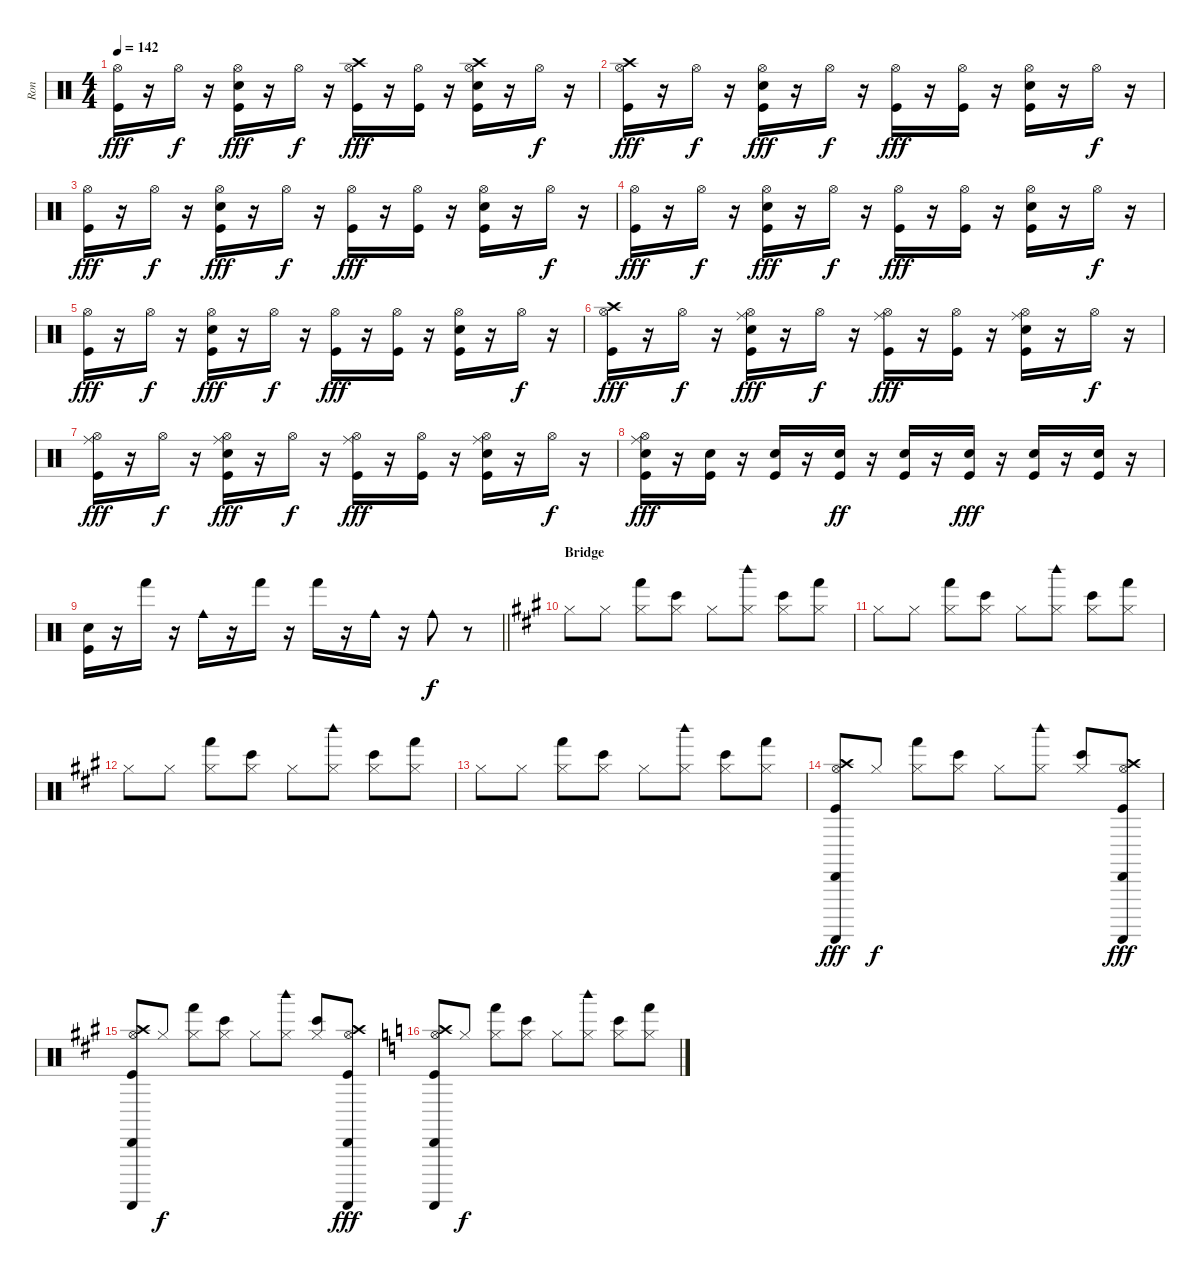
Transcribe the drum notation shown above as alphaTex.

\track ("Ron" "Ron") {instrument percussion}
\staff {score}
\articulation defaults
\ts (4 4)
\tempo 142
\clef neutral
\ks c
("Hi-Hat (open)" "Kick (hit)").16{dy fff} r.16 "Hi-Hat (open)".16{dy f} r.16 ("Snare (hit) 2" "Kick (hit)" "Hi-Hat (open)").16{dy fff} r.16 "Hi-Hat (open)".16{dy f} r.16 ("Kick (hit)" "Hi-Hat (open)" "Crash high (hit)").16{dy fff} r.16 ("Kick (hit)" "Hi-Hat (open)").16 r.16 ("Kick (hit)" "Snare (hit) 2" "Hi-Hat (open)" "Crash high (hit)").16 r.16 "Hi-Hat (open)".16{dy f} r.16 |
("Hi-Hat (open)" "Kick (hit)" "Crash high (hit)").16{dy fff} r.16 "Hi-Hat (open)".16{dy f} r.16 ("Snare (hit) 2" "Kick (hit)" "Hi-Hat (open)").16{dy fff} r.16 "Hi-Hat (open)".16{dy f} r.16 ("Kick (hit)" "Hi-Hat (open)").16{dy fff} r.16 ("Kick (hit)" "Hi-Hat (open)").16 r.16 ("Kick (hit)" "Snare (hit) 2" "Hi-Hat (open)").16 r.16 "Hi-Hat (open)".16{dy f} r.16 |
("Hi-Hat (open)" "Kick (hit)").16{dy fff} r.16 "Hi-Hat (open)".16{dy f} r.16 ("Snare (hit) 2" "Kick (hit)" "Hi-Hat (open)").16{dy fff} r.16 "Hi-Hat (open)".16{dy f} r.16 ("Kick (hit)" "Hi-Hat (open)").16{dy fff} r.16 ("Kick (hit)" "Hi-Hat (open)").16 r.16 ("Kick (hit)" "Snare (hit) 2" "Hi-Hat (open)").16 r.16 "Hi-Hat (open)".16{dy f} r.16 |
("Hi-Hat (open)" "Kick (hit)").16{dy fff} r.16 "Hi-Hat (open)".16{dy f} r.16 ("Snare (hit) 2" "Kick (hit)" "Hi-Hat (open)").16{dy fff} r.16 "Hi-Hat (open)".16{dy f} r.16 ("Kick (hit)" "Hi-Hat (open)").16{dy fff} r.16 ("Kick (hit)" "Hi-Hat (open)").16 r.16 ("Kick (hit)" "Snare (hit) 2" "Hi-Hat (open)").16 r.16 "Hi-Hat (open)".16{dy f} r.16 |
("Hi-Hat (open)" "Kick (hit)").16{dy fff} r.16 "Hi-Hat (open)".16{dy f} r.16 ("Snare (hit) 2" "Kick (hit)" "Hi-Hat (open)").16{dy fff} r.16 "Hi-Hat (open)".16{dy f} r.16 ("Kick (hit)" "Hi-Hat (open)").16{dy fff} r.16 ("Kick (hit)" "Hi-Hat (open)").16 r.16 ("Kick (hit)" "Snare (hit) 2" "Hi-Hat (open)").16 r.16 "Hi-Hat (open)".16{dy f} r.16 |
("Hi-Hat (open)" "Kick (hit)" "Crash high (hit)").16{dy fff} r.16 "Hi-Hat (open)".16{dy f} r.16 ("Snare (hit) 2" "Kick (hit)" "Hi-Hat (open)" "Ride (middle)").16{dy fff} r.16 "Hi-Hat (open)".16{dy f} r.16 ("Kick (hit)" "Hi-Hat (open)" "Ride (middle)").16{dy fff} r.16 ("Kick (hit)" "Hi-Hat (open)").16 r.16 ("Kick (hit)" "Snare (hit) 2" "Hi-Hat (open)" "Ride (middle)").16 r.16 "Hi-Hat (open)".16{dy f} r.16 |
("Hi-Hat (open)" "Kick (hit)" "Ride (middle)").16{dy fff} r.16 "Hi-Hat (open)".16{dy f} r.16 ("Snare (hit) 2" "Kick (hit)" "Hi-Hat (open)" "Ride (middle)").16{dy fff} r.16 "Hi-Hat (open)".16{dy f} r.16 ("Kick (hit)" "Hi-Hat (open)" "Ride (middle)").16{dy fff} r.16 ("Kick (hit)" "Hi-Hat (open)").16 r.16 ("Kick (hit)" "Snare (hit) 2" "Hi-Hat (open)" "Ride (middle)").16 r.16 "Hi-Hat (open)".16{dy f} r.16 |
("Hi-Hat (open)" "Kick (hit)" "Snare (hit) 2" "Ride (middle)").16{dy fff} r.16 ("Kick (hit)" "Snare (hit) 2").16 r.16 ("Kick (hit)" "Snare (hit) 2").16 r.16 ("Kick (hit)" "Snare (hit) 2").16{dy ff} r.16 ("Kick (hit)" "Snare (hit) 2").16 r.16 ("Kick (hit)" "Snare (hit) 2").16{dy fff} r.16 ("Kick (hit)" "Snare (hit) 2").16 r.16 ("Kick (hit)" "Snare (hit) 2").16 r.16 |
\barLineRight lightlight
("Kick (hit)" "Snare (hit) 2").16 r.16 "Hand (hit)".16 r.16 "Cowbell medium (hit)".16 r.16 "Hand (hit)".16 r.16 "Hand (hit)".16 r.16 "Cowbell medium (hit)".16 r.16 "Cowbell medium (hit)".8{dy f} r.8 |
\section ("" "Bridge")
\ks a "Hi-Hat (closed)".8 "Hi-Hat (closed)".8
("Hi-Hat (closed)" "Hand (hit)").8 ("Hi-Hat (closed)" "Bongo High (hit)").8 "Hi-Hat (closed)".8 ("Hi-Hat (closed)" "Woodblock high (hit)").8 ("Hi-Hat (closed)" "Bongo High (hit)").8 ("Hi-Hat (closed)" "Hand (hit)").8 |
"Hi-Hat (closed)".8 "Hi-Hat (closed)".8 ("Hi-Hat (closed)" "Hand (hit)").8 ("Hi-Hat (closed)" "Bongo High (hit)").8 "Hi-Hat (closed)".8 ("Hi-Hat (closed)" "Woodblock high (hit)").8 ("Hi-Hat (closed)" "Bongo High (hit)").8 ("Hi-Hat (closed)" "Hand (hit)").8 |
"Hi-Hat (closed)".8 "Hi-Hat (closed)".8 ("Hi-Hat (closed)" "Hand (hit)").8 ("Hi-Hat (closed)" "Bongo High (hit)").8 "Hi-Hat (closed)".8 ("Hi-Hat (closed)" "Woodblock high (hit)").8 ("Hi-Hat (closed)" "Bongo High (hit)").8 ("Hi-Hat (closed)" "Hand (hit)").8 |
"Hi-Hat (closed)".8 "Hi-Hat (closed)".8 ("Hi-Hat (closed)" "Hand (hit)").8 ("Hi-Hat (closed)" "Bongo High (hit)").8 "Hi-Hat (closed)".8 ("Hi-Hat (closed)" "Woodblock high (hit)").8 ("Hi-Hat (closed)" "Bongo High (hit)").8 ("Hi-Hat (closed)" "Hand (hit)").8 |
("Cabasa (hit)" "Hi-Hat (open)" "Guiro (scrap-return)" "Crash high (hit)" "Kick (hit)").8{dy fff} "Hi-Hat (closed)".8{dy f} ("Hi-Hat (closed)" "Hand (hit)").8 ("Hi-Hat (closed)" "Bongo High (hit)").8 "Hi-Hat (closed)".8 ("Hi-Hat (closed)" "Woodblock high (hit)").8 ("Hi-Hat (closed)" "Bongo High (hit)").8 ("Cabasa (hit)" "Hi-Hat (open)" "Guiro (scrap-return)" "Crash high (hit)" "Kick (hit)").8{dy fff} |
("Cabasa (hit)" "Hi-Hat (open)" "Guiro (scrap-return)" "Crash high (hit)" "Kick (hit)").8 "Hi-Hat (closed)".8{dy f} ("Hi-Hat (closed)" "Hand (hit)").8 ("Hi-Hat (closed)" "Bongo High (hit)").8 "Hi-Hat (closed)".8 ("Hi-Hat (closed)" "Woodblock high (hit)").8 ("Hi-Hat (closed)" "Bongo High (hit)").8 ("Cabasa (hit)" "Hi-Hat (open)" "Guiro (scrap-return)" "Crash high (hit)" "Kick (hit)").8{dy fff} |
\ks c
("Cabasa (hit)" "Hi-Hat (open)" "Guiro (scrap-return)" "Crash high (hit)" "Kick (hit)").8 "Hi-Hat (closed)".8{dy f} ("Hi-Hat (closed)" "Hand (hit)").8 ("Hi-Hat (closed)" "Bongo High (hit)").8 "Hi-Hat (closed)".8 ("Hi-Hat (closed)" "Woodblock high (hit)").8 ("Hi-Hat (closed)" "Bongo High (hit)").8 ("Hi-Hat (closed)" "Hand (hit)").8
